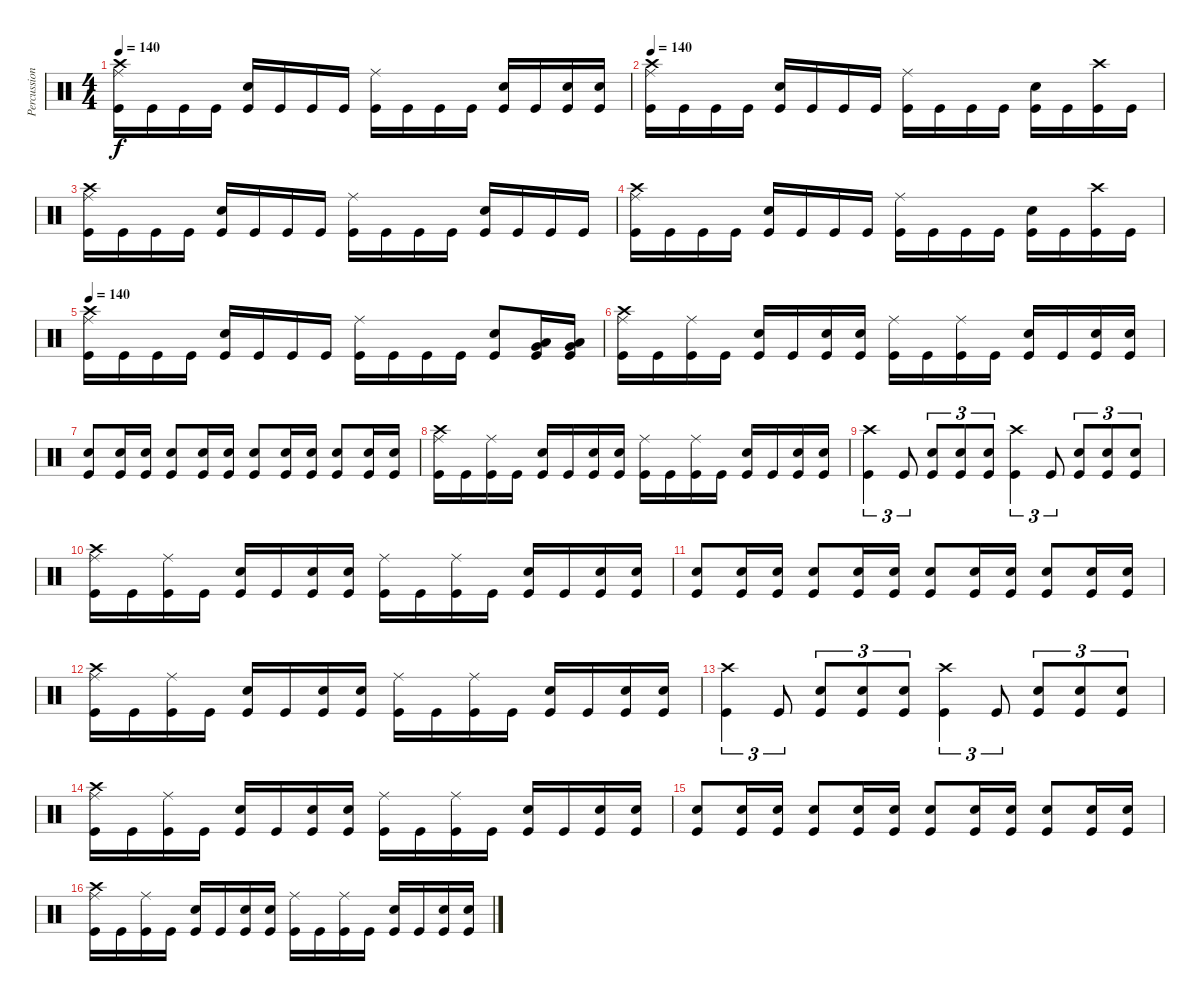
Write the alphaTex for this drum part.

\track ("Percussion" "Percussion") {instrument percussion}
\staff {score}
\articulation defaults
\ts (4 4)
\tempo 140
\clef neutral
\ks c
("Ride (middle)" "Crash high (hit)" "Kick (hit)").16{dy f} "Kick (hit)".16 "Kick (hit)".16 "Kick (hit)".16 ("Snare (hit) 2" "Kick (hit)").16 "Kick (hit)".16 "Kick (hit)".16 "Kick (hit)".16 ("Ride (middle)" "Kick (hit)").16 "Kick (hit)".16 "Kick (hit)".16 "Kick (hit)".16 ("Snare (hit) 2" "Kick (hit)").16 "Kick (hit)".16 ("Snare (hit) 2" "Kick (hit)").16 ("Snare (hit) 2" "Kick (hit)").16 |
\tempo 140
("Ride (middle)" "Crash high (hit)" "Kick (hit)").16 "Kick (hit)".16 "Kick (hit)".16 "Kick (hit)".16 ("Snare (hit) 2" "Kick (hit)").16 "Kick (hit)".16 "Kick (hit)".16 "Kick (hit)".16 ("Ride (middle)" "Kick (hit)").16 "Kick (hit)".16 "Kick (hit)".16 "Kick (hit)".16 ("Snare (hit) 2" "Kick (hit)").16 "Kick (hit)".16 ("Crash high (hit)" "Kick (hit)").16 "Kick (hit)".16 |
("Ride (middle)" "Crash high (hit)" "Kick (hit)").16 "Kick (hit)".16 "Kick (hit)".16 "Kick (hit)".16 ("Snare (hit) 2" "Kick (hit)").16 "Kick (hit)".16 "Kick (hit)".16 "Kick (hit)".16 ("Ride (middle)" "Kick (hit)").16 "Kick (hit)".16 "Kick (hit)".16 "Kick (hit)".16 ("Snare (hit) 2" "Kick (hit)").16 "Kick (hit)".16 "Kick (hit)".16 "Kick (hit)".16 |
("Ride (middle)" "Crash high (hit)" "Kick (hit)").16 "Kick (hit)".16 "Kick (hit)".16 "Kick (hit)".16 ("Snare (hit) 2" "Kick (hit)").16 "Kick (hit)".16 "Kick (hit)".16 "Kick (hit)".16 ("Ride (middle)" "Kick (hit)").16 "Kick (hit)".16 "Kick (hit)".16 "Kick (hit)".16 ("Snare (hit) 2" "Kick (hit)").16 "Kick (hit)".16 ("Crash high (hit)" "Kick (hit)").16 "Kick (hit)".16 |
\tempo 140
("Ride (middle)" "Crash high (hit)" "Kick (hit)").16 "Kick (hit)".16 "Kick (hit)".16 "Kick (hit)".16 ("Snare (hit) 2" "Kick (hit)").16 "Kick (hit)".16 "Kick (hit)".16 "Kick (hit)".16 ("Ride (middle)" "Kick (hit)").16 "Kick (hit)".16 "Kick (hit)".16 "Kick (hit)".16 ("Snare (hit) 2" "Kick (hit)").8 ("Low Tom (hit)" "Very Low Tom (hit)" "Kick (hit)").16 ("Low Tom (hit)" "Very Low Tom (hit)" "Kick (hit)").16 |
("Ride (middle)" "Crash high (hit)" "Kick (hit)").16 "Kick (hit)".16 ("Ride (middle)" "Kick (hit)").16 "Kick (hit)".16 ("Snare (hit) 2" "Kick (hit)").16 "Kick (hit)".16 ("Snare (hit) 2" "Kick (hit)").16 ("Snare (hit) 2" "Kick (hit)").16 ("Ride (middle)" "Kick (hit)").16 "Kick (hit)".16 ("Ride (middle)" "Kick (hit)").16 "Kick (hit)".16 ("Snare (hit) 2" "Kick (hit)").16 "Kick (hit)".16 ("Snare (hit) 2" "Kick (hit)").16 ("Snare (hit) 2" "Kick (hit)").16 |
("Snare (hit) 2" "Kick (hit)").8 ("Snare (hit) 2" "Kick (hit)").16 ("Snare (hit) 2" "Kick (hit)").16 ("Snare (hit) 2" "Kick (hit)").8 ("Snare (hit) 2" "Kick (hit)").16 ("Snare (hit) 2" "Kick (hit)").16 ("Snare (hit) 2" "Kick (hit)").8 ("Snare (hit) 2" "Kick (hit)").16 ("Snare (hit) 2" "Kick (hit)").16 ("Snare (hit) 2" "Kick (hit)").8 ("Snare (hit) 2" "Kick (hit)").16 ("Snare (hit) 2" "Kick (hit)").16 |
("Ride (middle)" "Crash high (hit)" "Kick (hit)").16 "Kick (hit)".16 ("Ride (middle)" "Kick (hit)").16 "Kick (hit)".16 ("Snare (hit) 2" "Kick (hit)").16 "Kick (hit)".16 ("Snare (hit) 2" "Kick (hit)").16 ("Snare (hit) 2" "Kick (hit)").16 ("Ride (middle)" "Kick (hit)").16 "Kick (hit)".16 ("Ride (middle)" "Kick (hit)").16 "Kick (hit)".16 ("Snare (hit) 2" "Kick (hit)").16 "Kick (hit)".16 ("Snare (hit) 2" "Kick (hit)").16 ("Snare (hit) 2" "Kick (hit)").16 |
("Crash high (hit)" "Kick (hit)").4{tu (3 2)} "Kick (hit)".8{tu (3 2)} ("Snare (hit) 2" "Kick (hit)").8{tu (3 2)} ("Snare (hit) 2" "Kick (hit)").8{tu (3 2)} ("Snare (hit) 2" "Kick (hit)").8{tu (3 2)} ("Crash high (hit)" "Kick (hit)").4{tu (3 2)} "Kick (hit)".8{tu (3 2)} ("Snare (hit) 2" "Kick (hit)").8{tu (3 2)} ("Snare (hit) 2" "Kick (hit)").8{tu (3 2)} ("Snare (hit) 2" "Kick (hit)").8{tu (3 2)} |
("Ride (middle)" "Crash high (hit)" "Kick (hit)").16 "Kick (hit)".16 ("Ride (middle)" "Kick (hit)").16 "Kick (hit)".16 ("Snare (hit) 2" "Kick (hit)").16 "Kick (hit)".16 ("Snare (hit) 2" "Kick (hit)").16 ("Snare (hit) 2" "Kick (hit)").16 ("Ride (middle)" "Kick (hit)").16 "Kick (hit)".16 ("Ride (middle)" "Kick (hit)").16 "Kick (hit)".16 ("Snare (hit) 2" "Kick (hit)").16 "Kick (hit)".16 ("Snare (hit) 2" "Kick (hit)").16 ("Snare (hit) 2" "Kick (hit)").16 |
("Snare (hit) 2" "Kick (hit)").8 ("Snare (hit) 2" "Kick (hit)").16 ("Snare (hit) 2" "Kick (hit)").16 ("Snare (hit) 2" "Kick (hit)").8 ("Snare (hit) 2" "Kick (hit)").16 ("Snare (hit) 2" "Kick (hit)").16 ("Snare (hit) 2" "Kick (hit)").8 ("Snare (hit) 2" "Kick (hit)").16 ("Snare (hit) 2" "Kick (hit)").16 ("Snare (hit) 2" "Kick (hit)").8 ("Snare (hit) 2" "Kick (hit)").16 ("Snare (hit) 2" "Kick (hit)").16 |
("Ride (middle)" "Crash high (hit)" "Kick (hit)").16 "Kick (hit)".16 ("Ride (middle)" "Kick (hit)").16 "Kick (hit)".16 ("Snare (hit) 2" "Kick (hit)").16 "Kick (hit)".16 ("Snare (hit) 2" "Kick (hit)").16 ("Snare (hit) 2" "Kick (hit)").16 ("Ride (middle)" "Kick (hit)").16 "Kick (hit)".16 ("Ride (middle)" "Kick (hit)").16 "Kick (hit)".16 ("Snare (hit) 2" "Kick (hit)").16 "Kick (hit)".16 ("Snare (hit) 2" "Kick (hit)").16 ("Snare (hit) 2" "Kick (hit)").16 |
("Crash high (hit)" "Kick (hit)").4{tu (3 2)} "Kick (hit)".8{tu (3 2)} ("Snare (hit) 2" "Kick (hit)").8{tu (3 2)} ("Snare (hit) 2" "Kick (hit)").8{tu (3 2)} ("Snare (hit) 2" "Kick (hit)").8{tu (3 2)} ("Crash high (hit)" "Kick (hit)").4{tu (3 2)} "Kick (hit)".8{tu (3 2)} ("Snare (hit) 2" "Kick (hit)").8{tu (3 2)} ("Snare (hit) 2" "Kick (hit)").8{tu (3 2)} ("Snare (hit) 2" "Kick (hit)").8{tu (3 2)} |
("Ride (middle)" "Crash high (hit)" "Kick (hit)").16 "Kick (hit)".16 ("Ride (middle)" "Kick (hit)").16 "Kick (hit)".16 ("Snare (hit) 2" "Kick (hit)").16 "Kick (hit)".16 ("Snare (hit) 2" "Kick (hit)").16 ("Snare (hit) 2" "Kick (hit)").16 ("Ride (middle)" "Kick (hit)").16 "Kick (hit)".16 ("Ride (middle)" "Kick (hit)").16 "Kick (hit)".16 ("Snare (hit) 2" "Kick (hit)").16 "Kick (hit)".16 ("Snare (hit) 2" "Kick (hit)").16 ("Snare (hit) 2" "Kick (hit)").16 |
("Snare (hit) 2" "Kick (hit)").8 ("Snare (hit) 2" "Kick (hit)").16 ("Snare (hit) 2" "Kick (hit)").16 ("Snare (hit) 2" "Kick (hit)").8 ("Snare (hit) 2" "Kick (hit)").16 ("Snare (hit) 2" "Kick (hit)").16 ("Snare (hit) 2" "Kick (hit)").8 ("Snare (hit) 2" "Kick (hit)").16 ("Snare (hit) 2" "Kick (hit)").16 ("Snare (hit) 2" "Kick (hit)").8 ("Snare (hit) 2" "Kick (hit)").16 ("Snare (hit) 2" "Kick (hit)").16 |
("Ride (middle)" "Crash high (hit)" "Kick (hit)").16 "Kick (hit)".16 ("Ride (middle)" "Kick (hit)").16 "Kick (hit)".16 ("Snare (hit) 2" "Kick (hit)").16 "Kick (hit)".16 ("Snare (hit) 2" "Kick (hit)").16 ("Snare (hit) 2" "Kick (hit)").16 ("Ride (middle)" "Kick (hit)").16 "Kick (hit)".16 ("Ride (middle)" "Kick (hit)").16 "Kick (hit)".16 ("Snare (hit) 2" "Kick (hit)").16 "Kick (hit)".16 ("Snare (hit) 2" "Kick (hit)").16 ("Snare (hit) 2" "Kick (hit)").16
